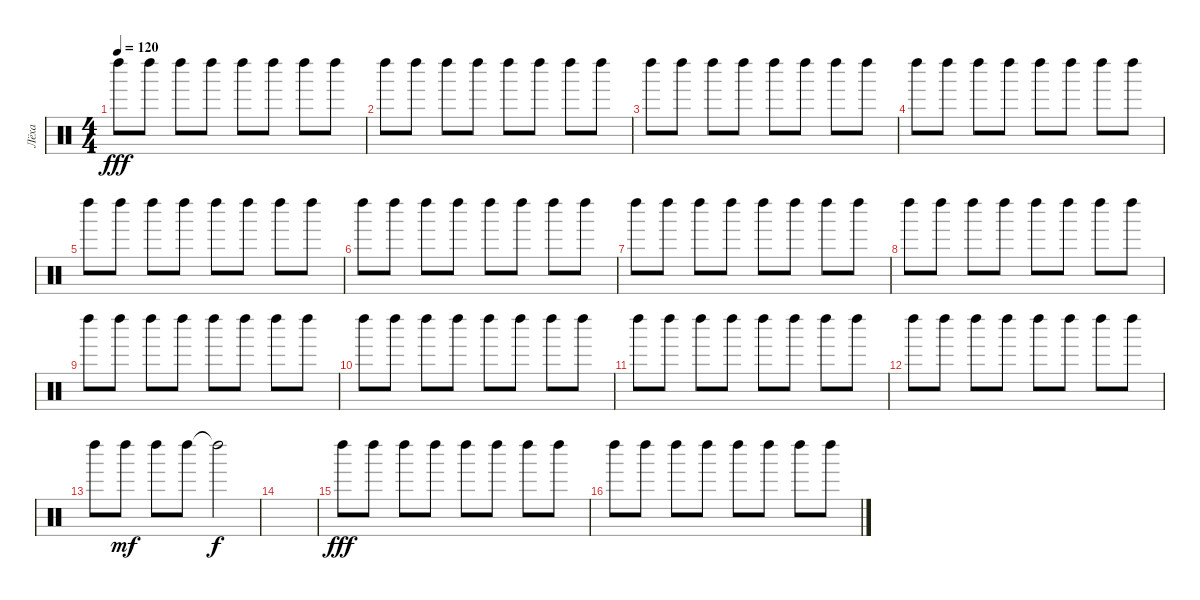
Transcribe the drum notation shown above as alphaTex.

\track ("Лёха" "Лёха") {instrument percussion}
\staff {score}
\articulation defaults
\ts (4 4)
\tempo 120
\clef neutral
\ks c "Left Maraca (hit)".8{dy fff} "Left Maraca (hit)".8 "Left Maraca (hit)".8 "Left Maraca (hit)".8 "Left Maraca (hit)".8 "Left Maraca (hit)".8 "Left Maraca (hit)".8 "Left Maraca (hit)".8
|
"Left Maraca (hit)".8 "Left Maraca (hit)".8 "Left Maraca (hit)".8 "Left Maraca (hit)".8 "Left Maraca (hit)".8 "Left Maraca (hit)".8 "Left Maraca (hit)".8 "Left Maraca (hit)".8 |
"Left Maraca (hit)".8 "Left Maraca (hit)".8 "Left Maraca (hit)".8 "Left Maraca (hit)".8 "Left Maraca (hit)".8 "Left Maraca (hit)".8 "Left Maraca (hit)".8 "Left Maraca (hit)".8 |
"Left Maraca (hit)".8 "Left Maraca (hit)".8 "Left Maraca (hit)".8 "Left Maraca (hit)".8 "Left Maraca (hit)".8 "Left Maraca (hit)".8 "Left Maraca (hit)".8 "Left Maraca (hit)".8 |
"Left Maraca (hit)".8 "Left Maraca (hit)".8 "Left Maraca (hit)".8 "Left Maraca (hit)".8 "Left Maraca (hit)".8 "Left Maraca (hit)".8 "Left Maraca (hit)".8 "Left Maraca (hit)".8 |
"Left Maraca (hit)".8 "Left Maraca (hit)".8 "Left Maraca (hit)".8 "Left Maraca (hit)".8 "Left Maraca (hit)".8 "Left Maraca (hit)".8 "Left Maraca (hit)".8 "Left Maraca (hit)".8 |
"Left Maraca (hit)".8 "Left Maraca (hit)".8 "Left Maraca (hit)".8 "Left Maraca (hit)".8 "Left Maraca (hit)".8 "Left Maraca (hit)".8 "Left Maraca (hit)".8 "Left Maraca (hit)".8 |
"Left Maraca (hit)".8 "Left Maraca (hit)".8 "Left Maraca (hit)".8 "Left Maraca (hit)".8 "Left Maraca (hit)".8 "Left Maraca (hit)".8 "Left Maraca (hit)".8 "Left Maraca (hit)".8 |
"Left Maraca (hit)".8 "Left Maraca (hit)".8 "Left Maraca (hit)".8 "Left Maraca (hit)".8 "Left Maraca (hit)".8 "Left Maraca (hit)".8 "Left Maraca (hit)".8 "Left Maraca (hit)".8 |
"Left Maraca (hit)".8 "Left Maraca (hit)".8 "Left Maraca (hit)".8 "Left Maraca (hit)".8 "Left Maraca (hit)".8 "Left Maraca (hit)".8 "Left Maraca (hit)".8 "Left Maraca (hit)".8 |
"Left Maraca (hit)".8 "Left Maraca (hit)".8 "Left Maraca (hit)".8 "Left Maraca (hit)".8 "Left Maraca (hit)".8 "Left Maraca (hit)".8 "Left Maraca (hit)".8 "Left Maraca (hit)".8 |
"Left Maraca (hit)".8 "Left Maraca (hit)".8 "Left Maraca (hit)".8 "Left Maraca (hit)".8 "Left Maraca (hit)".8 "Left Maraca (hit)".8 "Left Maraca (hit)".8 "Left Maraca (hit)".8 |
"Left Maraca (hit)".8 "Left Maraca (hit)".8{dy mf} "Left Maraca (hit)".8 "Left Maraca (hit)".8 "Left Maraca (hit)"{t}.2{dy f} |
|
"Left Maraca (hit)".8{dy fff} "Left Maraca (hit)".8 "Left Maraca (hit)".8 "Left Maraca (hit)".8 "Left Maraca (hit)".8 "Left Maraca (hit)".8 "Left Maraca (hit)".8 "Left Maraca (hit)".8 |
"Left Maraca (hit)".8 "Left Maraca (hit)".8 "Left Maraca (hit)".8 "Left Maraca (hit)".8 "Left Maraca (hit)".8 "Left Maraca (hit)".8 "Left Maraca (hit)".8 "Left Maraca (hit)".8
